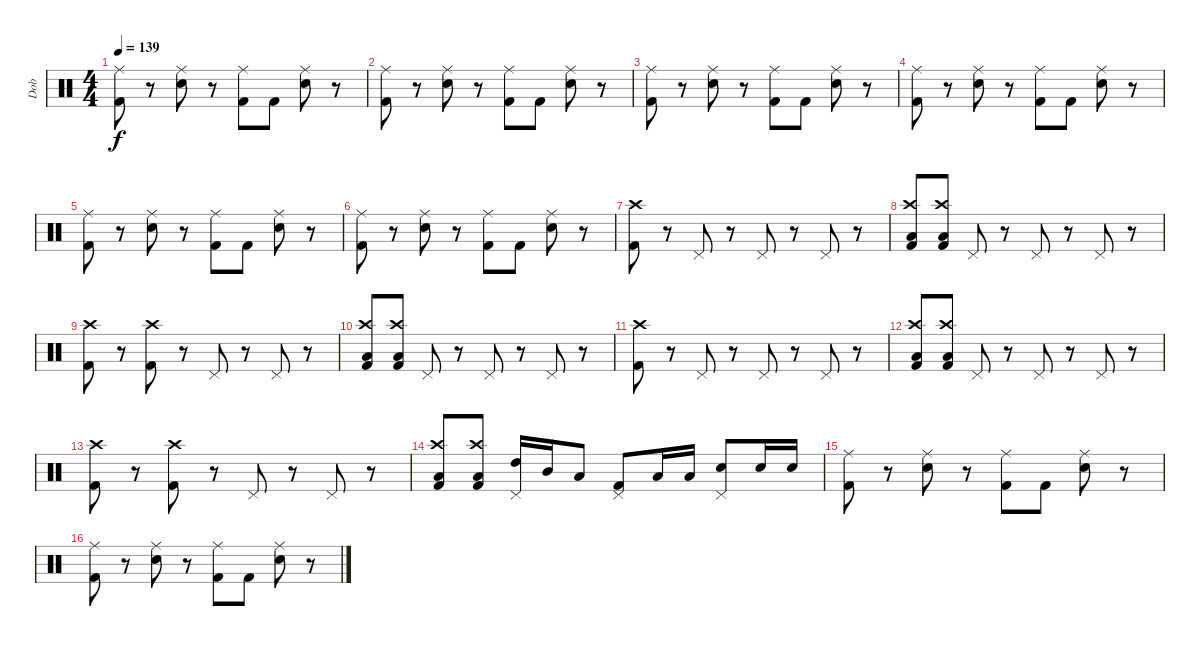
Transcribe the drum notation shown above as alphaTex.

\track ("Dob" "Dob") {instrument percussion}
\staff {score}
\articulation defaults
\ts (4 4)
\tempo 139
\clef neutral
\ks c
("Ride (middle)" "Kick (hit) 2").8{dy f} r.8 ("Ride (middle)" "Electric Snare (hit)").8 r.8 ("Ride (middle)" "Kick (hit) 2").8 "Kick (hit) 2".8 ("Ride (middle)" "Electric Snare (hit)").8 r.8 |
("Ride (middle)" "Kick (hit) 2").8 r.8 ("Ride (middle)" "Electric Snare (hit)").8 r.8 ("Ride (middle)" "Kick (hit) 2").8 "Kick (hit) 2".8 ("Ride (middle)" "Electric Snare (hit)").8 r.8 |
("Ride (middle)" "Kick (hit) 2").8 r.8 ("Ride (middle)" "Electric Snare (hit)").8 r.8 ("Ride (middle)" "Kick (hit) 2").8 "Kick (hit) 2".8 ("Ride (middle)" "Electric Snare (hit)").8 r.8 |
("Ride (middle)" "Kick (hit) 2").8 r.8 ("Ride (middle)" "Electric Snare (hit)").8 r.8 ("Ride (middle)" "Kick (hit) 2").8 "Kick (hit) 2".8 ("Ride (middle)" "Electric Snare (hit)").8 r.8 |
("Ride (middle)" "Kick (hit) 2").8 r.8 ("Ride (middle)" "Electric Snare (hit)").8 r.8 ("Ride (middle)" "Kick (hit) 2").8 "Kick (hit) 2".8 ("Ride (middle)" "Electric Snare (hit)").8 r.8 |
("Ride (middle)" "Kick (hit) 2").8 r.8 ("Ride (middle)" "Electric Snare (hit)").8 r.8 ("Ride (middle)" "Kick (hit) 2").8 "Kick (hit) 2".8 ("Ride (middle)" "Electric Snare (hit)").8 r.8 |
("Crash high (hit)" "Kick (hit) 2").8 r.8 "Pedal Hi-Hat (hit)".8 r.8 "Pedal Hi-Hat (hit)".8 r.8 "Pedal Hi-Hat (hit)".8 r.8 |
("Crash high (hit)" "Low Floor Tom (hit)" "Kick (hit) 2").8 ("Crash high (hit)" "Low Floor Tom (hit)" "Kick (hit) 2").8 "Pedal Hi-Hat (hit)".8 r.8 "Pedal Hi-Hat (hit)".8 r.8 "Pedal Hi-Hat (hit)".8 r.8 |
("Crash high (hit)" "Kick (hit) 2").8 r.8 ("Crash high (hit)" "Kick (hit) 2").8 r.8 "Pedal Hi-Hat (hit)".8 r.8 "Pedal Hi-Hat (hit)".8 r.8 |
("Crash high (hit)" "Low Floor Tom (hit)" "Kick (hit) 2").8 ("Crash high (hit)" "Low Floor Tom (hit)" "Kick (hit) 2").8 "Pedal Hi-Hat (hit)".8 r.8 "Pedal Hi-Hat (hit)".8 r.8 "Pedal Hi-Hat (hit)".8 r.8 |
("Crash high (hit)" "Kick (hit) 2").8 r.8 "Pedal Hi-Hat (hit)".8 r.8 "Pedal Hi-Hat (hit)".8 r.8 "Pedal Hi-Hat (hit)".8 r.8 |
("Crash high (hit)" "Low Floor Tom (hit)" "Kick (hit) 2").8 ("Crash high (hit)" "Low Floor Tom (hit)" "Kick (hit) 2").8 "Pedal Hi-Hat (hit)".8 r.8 "Pedal Hi-Hat (hit)".8 r.8 "Pedal Hi-Hat (hit)".8 r.8 |
("Crash high (hit)" "Kick (hit) 2").8 r.8 ("Crash high (hit)" "Kick (hit) 2").8 r.8 "Pedal Hi-Hat (hit)".8 r.8 "Pedal Hi-Hat (hit)".8 r.8 |
("Crash high (hit)" "Low Floor Tom (hit)" "Kick (hit) 2").8 ("Crash high (hit)" "Low Floor Tom (hit)" "Kick (hit) 2").8 ("Pedal Hi-Hat (hit)" "High Tom (hit)").16 "Mid Tom (hit)".16 "Low Tom (hit)".8 ("Pedal Hi-Hat (hit)" "Kick (hit) 2").8 "Low Tom (hit)".16 "Low Tom (hit)".16 ("Pedal Hi-Hat (hit)" "Electric Snare (hit)").8 "Electric Snare (hit)".16 "Electric Snare (hit)".16 |
("Ride (middle)" "Kick (hit) 2").8 r.8 ("Ride (middle)" "Electric Snare (hit)").8 r.8 ("Ride (middle)" "Kick (hit) 2").8 "Kick (hit) 2".8 ("Ride (middle)" "Electric Snare (hit)").8 r.8 |
("Ride (middle)" "Kick (hit) 2").8 r.8 ("Ride (middle)" "Electric Snare (hit)").8 r.8 ("Ride (middle)" "Kick (hit) 2").8 "Kick (hit) 2".8 ("Ride (middle)" "Electric Snare (hit)").8 r.8
